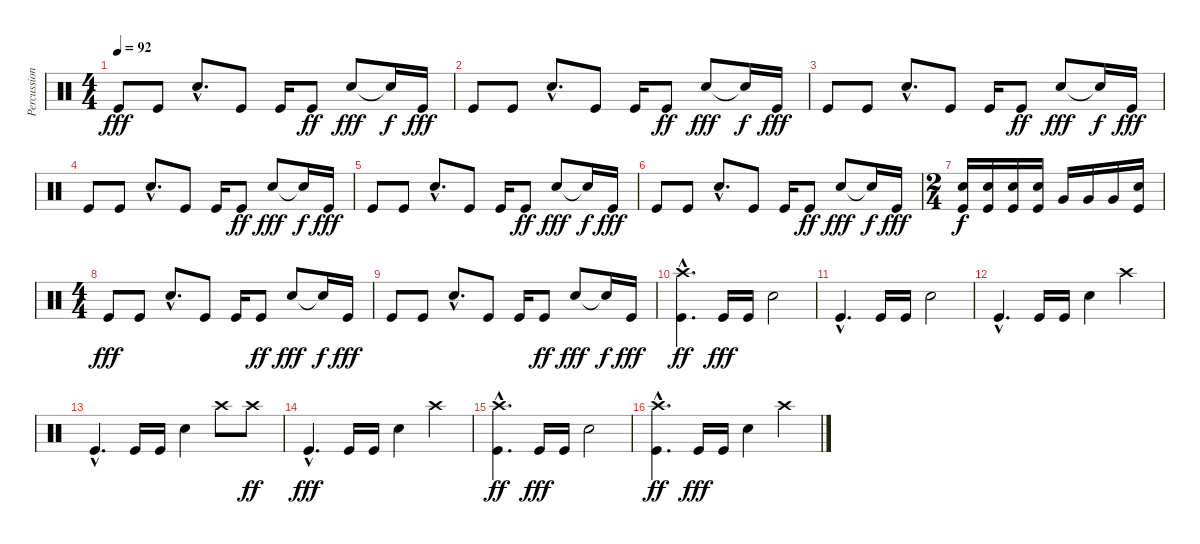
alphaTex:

\track ("Percussion" "Percussion") {instrument percussion}
\staff {score}
\articulation defaults
\ts (4 4)
\tempo 92
\clef neutral
\ks c "Kick (hit)".8{dy fff} "Kick (hit)".8 "Electric Snare (hit)"{hac}.8{d} "Kick (hit)".8 "Kick (hit)".16 "Kick (hit)".8{dy ff} "Electric Snare (hit)".8{dy fff} "Snare (hit)"{t}.16{dy f} "Kick (hit)".16{dy fff}
|
"Kick (hit)".8 "Kick (hit)".8 "Electric Snare (hit)"{hac}.8{d} "Kick (hit)".8 "Kick (hit)".16 "Kick (hit)".8{dy ff} "Electric Snare (hit)".8{dy fff} "Snare (hit)"{t}.16{dy f} "Kick (hit)".16{dy fff} |
"Kick (hit)".8 "Kick (hit)".8 "Electric Snare (hit)"{hac}.8{d} "Kick (hit)".8 "Kick (hit)".16 "Kick (hit)".8{dy ff} "Electric Snare (hit)".8{dy fff} "Snare (hit)"{t}.16{dy f} "Kick (hit)".16{dy fff} |
"Kick (hit)".8 "Kick (hit)".8 "Electric Snare (hit)"{hac}.8{d} "Kick (hit)".8 "Kick (hit)".16 "Kick (hit)".8{dy ff} "Electric Snare (hit)".8{dy fff} "Snare (hit)"{t}.16{dy f} "Kick (hit)".16{dy fff} |
"Kick (hit)".8 "Kick (hit)".8 "Electric Snare (hit)"{hac}.8{d} "Kick (hit)".8 "Kick (hit)".16 "Kick (hit)".8{dy ff} "Electric Snare (hit)".8{dy fff} "Snare (hit)"{t}.16{dy f} "Kick (hit)".16{dy fff} |
"Kick (hit)".8 "Kick (hit)".8 "Electric Snare (hit)"{hac}.8{d} "Kick (hit)".8 "Kick (hit)".16 "Kick (hit)".8{dy ff} "Electric Snare (hit)".8{dy fff} "Snare (hit)"{t}.16{dy f} "Kick (hit)".16{dy fff} |
\ts (2 4)
("Snare (hit) 2" "Kick (hit)").16{dy f} ("Snare (hit) 2" "Kick (hit)").16 ("Snare (hit) 2" "Kick (hit)").16 ("Snare (hit) 2" "Kick (hit)").16 "Very Low Tom (hit)".16 "Very Low Tom (hit)".16 "Very Low Tom (hit)".16 ("Kick (hit)" "Electric Snare (hit)").16 |
\ts (4 4)
"Kick (hit)".8{dy fff} "Kick (hit)".8 "Electric Snare (hit)"{hac}.8{d} "Kick (hit)".8 "Kick (hit)".16 "Kick (hit)".8{dy ff} "Electric Snare (hit)".8{dy fff} "Snare (hit)"{t}.16{dy f} "Kick (hit)".16{dy fff} |
"Kick (hit)".8 "Kick (hit)".8 "Electric Snare (hit)"{hac}.8{d} "Kick (hit)".8 "Kick (hit)".16 "Kick (hit)".8{dy ff} "Electric Snare (hit)".8{dy fff} "Snare (hit)"{t}.16{dy f} "Kick (hit)".16{dy fff} |
("Kick (hit)"{hac} "Crash high (hit)"{hac}).4{d dy ff} "Kick (hit)".16{dy fff} "Kick (hit)".16 "Snare (hit) 2".2 |
"Kick (hit)"{hac}.4{d} "Kick (hit)".16 "Kick (hit)".16 "Snare (hit) 2".2 |
"Kick (hit)"{hac}.4{d} "Kick (hit)".16 "Kick (hit)".16 "Snare (hit) 2".4 "Crash high (hit)".4 |
"Kick (hit)"{hac}.4{d} "Kick (hit)".16 "Kick (hit)".16 "Snare (hit) 2".4 "Crash high (hit)".8 "Crash high (hit)".8{dy ff} |
"Kick (hit)"{hac}.4{d dy fff} "Kick (hit)".16 "Kick (hit)".16 "Snare (hit) 2".4 "Crash high (hit)".4 |
("Kick (hit)"{hac} "Crash high (hit)"{hac}).4{d dy ff} "Kick (hit)".16{dy fff} "Kick (hit)".16 "Snare (hit) 2".2 |
("Kick (hit)"{hac} "Crash high (hit)"{hac}).4{d dy ff} "Kick (hit)".16{dy fff} "Kick (hit)".16 "Snare (hit) 2".4 "Crash high (hit)".4
